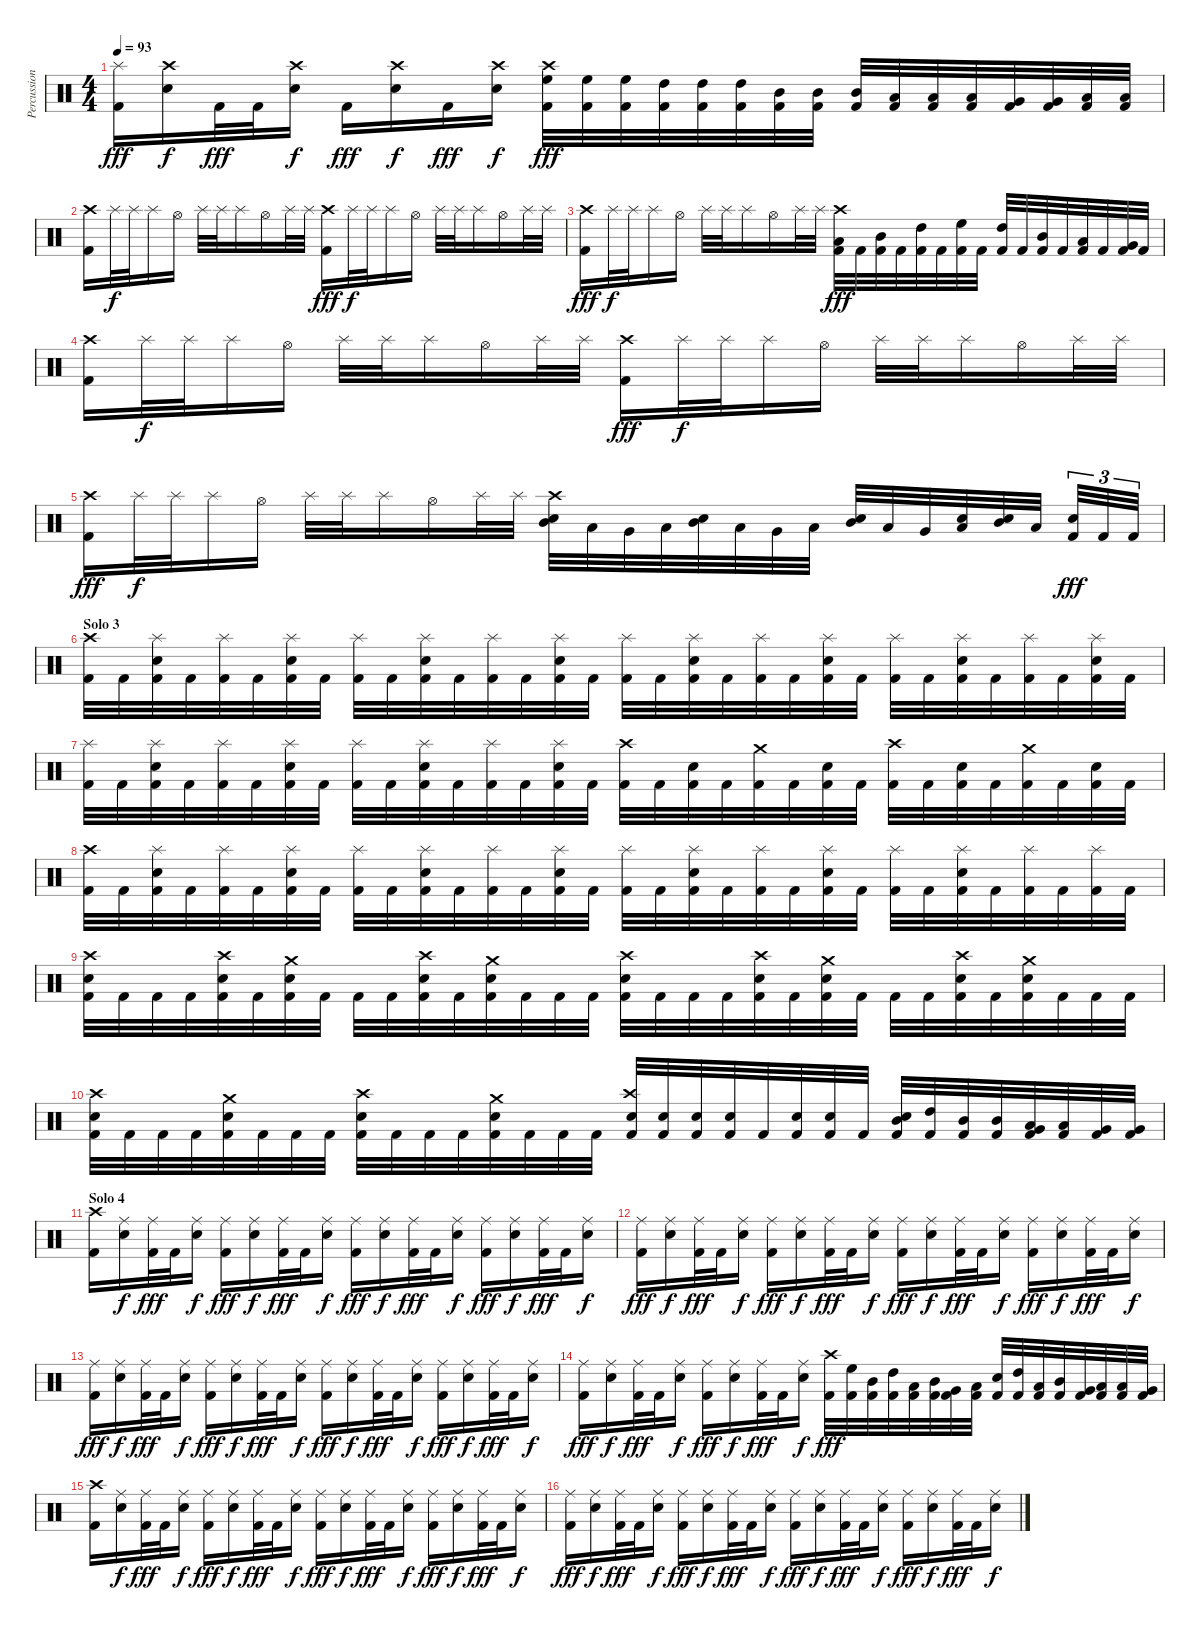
\track ("Percussion" "Percussion") {instrument percussion}
\staff {score}
\articulation defaults
\ts (4 4)
\tempo 93
\clef neutral
\ks c
("Splash (hit)" "Kick (hit) 2").16{dy fff} ("Crash high (hit)" "Snare (hit) 2").16{dy f} "Kick (hit) 2".32{dy fff} "Kick (hit) 2".32 ("Crash high (hit)" "Snare (hit) 2").16{dy f} "Kick (hit) 2".16{dy fff} ("Crash high (hit)" "Snare (hit) 2").16{dy f} "Kick (hit) 2".16{dy fff} ("Crash high (hit)" "Snare (hit) 2").16{dy f} ("Crash high (hit)" "High Floor Tom (hit)" "Kick (hit) 2").32{dy fff} ("High Floor Tom (hit)" "Kick (hit) 2").32 ("High Floor Tom (hit)" "Kick (hit) 2").32 ("High Tom (hit)" "Kick (hit) 2").32 ("High Tom (hit)" "Kick (hit) 2").32 ("High Tom (hit)" "Kick (hit) 2").32 ("Mid Tom (hit)" "Kick (hit) 2").32 ("Mid Tom (hit)" "Kick (hit) 2").32 ("Mid Tom (hit)" "Kick (hit) 2").32 ("Low Tom (hit)" "Kick (hit) 2").32 ("Low Tom (hit)" "Kick (hit) 2").32 ("Low Tom (hit)" "Kick (hit) 2").32 ("Very Low Tom (hit)" "Kick (hit) 2").32 ("Very Low Tom (hit)" "Kick (hit) 2").32 ("Low Floor Tom (hit)" "Kick (hit) 2").32 ("Low Floor Tom (hit)" "Kick (hit) 2").32 |
\section ("" "")
("Crash high (hit)" "Kick (hit) 2").16 "Splash (hit)".32{dy f} "Splash (hit)".32 "Splash (hit)".16 "Hi-Hat (open)".16 "Splash (hit)".32 "Splash (hit)".32 "Splash (hit)".16 "Hi-Hat (open)".16 "Splash (hit)".32 "Splash (hit)".32 ("Crash high (hit)" "Kick (hit) 2").16{dy fff} "Splash (hit)".32{dy f} "Splash (hit)".32 "Splash (hit)".16 "Hi-Hat (open)".16 "Splash (hit)".32 "Splash (hit)".32 "Splash (hit)".16 "Hi-Hat (open)".16 "Splash (hit)".32 "Splash (hit)".32 |
("Crash high (hit)" "Kick (hit) 2").16{dy fff} "Splash (hit)".32{dy f} "Splash (hit)".32 "Splash (hit)".16 "Hi-Hat (open)".16 "Splash (hit)".32 "Splash (hit)".32 "Splash (hit)".16 "Hi-Hat (open)".16 "Splash (hit)".32 "Splash (hit)".32 ("Crash high (hit)" "Low Tom (hit)" "Kick (hit) 2").32{dy fff} "Kick (hit) 2".32 ("Mid Tom (hit)" "Kick (hit) 2").32 "Kick (hit) 2".32 ("High Tom (hit)" "Kick (hit) 2").32 "Kick (hit) 2".32 ("High Floor Tom (hit)" "Kick (hit) 2").32 "Kick (hit) 2".32 ("High Tom (hit)" "Kick (hit) 2").32 "Kick (hit) 2".32 ("Mid Tom (hit)" "Kick (hit) 2").32 "Kick (hit) 2".32 ("Low Tom (hit)" "Kick (hit) 2").32 "Kick (hit) 2".32 ("Very Low Tom (hit)" "Kick (hit) 2").32 "Kick (hit) 2".32 |
("Crash high (hit)" "Kick (hit) 2").16 "Splash (hit)".32{dy f} "Splash (hit)".32 "Splash (hit)".16 "Hi-Hat (open)".16 "Splash (hit)".32 "Splash (hit)".32 "Splash (hit)".16 "Hi-Hat (open)".16 "Splash (hit)".32 "Splash (hit)".32 ("Crash high (hit)" "Kick (hit) 2").16{dy fff} "Splash (hit)".32{dy f} "Splash (hit)".32 "Splash (hit)".16 "Hi-Hat (open)".16 "Splash (hit)".32 "Splash (hit)".32 "Splash (hit)".16 "Hi-Hat (open)".16 "Splash (hit)".32 "Splash (hit)".32 |
("Crash high (hit)" "Kick (hit) 2").16{dy fff} "Splash (hit)".32{dy f} "Splash (hit)".32 "Splash (hit)".16 "Hi-Hat (open)".16 "Splash (hit)".32 "Splash (hit)".32 "Splash (hit)".16 "Hi-Hat (open)".16 "Splash (hit)".32 "Splash (hit)".32 ("Crash high (hit)" "Snare (hit) 2" "Mid Tom (hit)").32 "Low Tom (hit)".32 "Very Low Tom (hit)".32 "Low Tom (hit)".32 ("Snare (hit) 2" "Mid Tom (hit)").32 "Low Tom (hit)".32 "Very Low Tom (hit)".32 "Low Tom (hit)".32 ("Snare (hit) 2" "Mid Tom (hit)").32 "Low Tom (hit)".32 "Very Low Tom (hit)".32 ("Snare (hit) 2" "Low Tom (hit)").32 ("Snare (hit) 2" "Mid Tom (hit)").32 "Low Tom (hit)".32 ("Snare (hit) 2" "Kick (hit) 2").32{tu (3 2) dy fff} "Kick (hit) 2".32{tu (3 2)} "Kick (hit) 2".32{tu (3 2)} |
\section ("" "Solo 3")
("Crash high (hit)" "Kick (hit) 2").32 "Kick (hit) 2".32 ("Splash (hit)" "Snare (hit) 2" "Kick (hit) 2").32 "Kick (hit) 2".32 ("Splash (hit)" "Kick (hit) 2").32 "Kick (hit) 2".32 ("Splash (hit)" "Snare (hit) 2" "Kick (hit) 2").32 "Kick (hit) 2".32 ("Splash (hit)" "Kick (hit) 2").32 "Kick (hit) 2".32 ("Splash (hit)" "Snare (hit) 2" "Kick (hit) 2").32 "Kick (hit) 2".32 ("Splash (hit)" "Kick (hit) 2").32 "Kick (hit) 2".32 ("Splash (hit)" "Snare (hit) 2" "Kick (hit) 2").32 "Kick (hit) 2".32 ("Splash (hit)" "Kick (hit) 2").32 "Kick (hit) 2".32 ("Splash (hit)" "Snare (hit) 2" "Kick (hit) 2").32 "Kick (hit) 2".32 ("Splash (hit)" "Kick (hit) 2").32 "Kick (hit) 2".32 ("Splash (hit)" "Snare (hit) 2" "Kick (hit) 2").32 "Kick (hit) 2".32 ("Splash (hit)" "Kick (hit) 2").32 "Kick (hit) 2".32 ("Splash (hit)" "Snare (hit) 2" "Kick (hit) 2").32 "Kick (hit) 2".32 ("Splash (hit)" "Kick (hit) 2").32 "Kick (hit) 2".32 ("Splash (hit)" "Snare (hit) 2" "Kick (hit) 2").32 "Kick (hit) 2".32 |
("Splash (hit)" "Kick (hit) 2").32 "Kick (hit) 2".32 ("Splash (hit)" "Snare (hit) 2" "Kick (hit) 2").32 "Kick (hit) 2".32 ("Splash (hit)" "Kick (hit) 2").32 "Kick (hit) 2".32 ("Splash (hit)" "Snare (hit) 2" "Kick (hit) 2").32 "Kick (hit) 2".32 ("Splash (hit)" "Kick (hit) 2").32 "Kick (hit) 2".32 ("Splash (hit)" "Snare (hit) 2" "Kick (hit) 2").32 "Kick (hit) 2".32 ("Splash (hit)" "Kick (hit) 2").32 "Kick (hit) 2".32 ("Splash (hit)" "Snare (hit) 2" "Kick (hit) 2").32 "Kick (hit) 2".32 ("Crash high (hit)" "Kick (hit) 2").32 "Kick (hit) 2".32 ("Snare (hit) 2" "Kick (hit) 2").32 "Kick (hit) 2".32 ("Crash medium (hit)" "Kick (hit) 2").32 "Kick (hit) 2".32 ("Snare (hit) 2" "Kick (hit) 2").32 "Kick (hit) 2".32 ("Crash high (hit)" "Kick (hit) 2").32 "Kick (hit) 2".32 ("Snare (hit) 2" "Kick (hit) 2").32 "Kick (hit) 2".32 ("Crash medium (hit)" "Kick (hit) 2").32 "Kick (hit) 2".32 ("Snare (hit) 2" "Kick (hit) 2").32 "Kick (hit) 2".32 |
("Crash high (hit)" "Kick (hit) 2").32 "Kick (hit) 2".32 ("Splash (hit)" "Snare (hit) 2" "Kick (hit) 2").32 "Kick (hit) 2".32 ("Splash (hit)" "Kick (hit) 2").32 "Kick (hit) 2".32 ("Splash (hit)" "Snare (hit) 2" "Kick (hit) 2").32 "Kick (hit) 2".32 ("Splash (hit)" "Kick (hit) 2").32 "Kick (hit) 2".32 ("Splash (hit)" "Snare (hit) 2" "Kick (hit) 2").32 "Kick (hit) 2".32 ("Splash (hit)" "Kick (hit) 2").32 "Kick (hit) 2".32 ("Splash (hit)" "Snare (hit) 2" "Kick (hit) 2").32 "Kick (hit) 2".32 ("Splash (hit)" "Kick (hit) 2").32 "Kick (hit) 2".32 ("Splash (hit)" "Snare (hit) 2" "Kick (hit) 2").32 "Kick (hit) 2".32 ("Splash (hit)" "Kick (hit) 2").32 "Kick (hit) 2".32 ("Splash (hit)" "Snare (hit) 2" "Kick (hit) 2").32 "Kick (hit) 2".32 ("Splash (hit)" "Kick (hit) 2").32 "Kick (hit) 2".32 ("Splash (hit)" "Snare (hit) 2" "Kick (hit) 2").32 "Kick (hit) 2".32 ("Splash (hit)" "Kick (hit) 2").32 "Kick (hit) 2".32 ("Splash (hit)" "Kick (hit) 2").32 "Kick (hit) 2".32 |
("Crash high (hit)" "Snare (hit) 2" "Kick (hit) 2").32 "Kick (hit) 2".32 "Kick (hit) 2".32 "Kick (hit) 2".32 ("Crash high (hit)" "Snare (hit) 2" "Kick (hit) 2").32 "Kick (hit) 2".32 ("Crash medium (hit)" "Snare (hit) 2" "Kick (hit) 2").32 "Kick (hit) 2".32 "Kick (hit) 2".32 "Kick (hit) 2".32 ("Crash high (hit)" "Snare (hit) 2" "Kick (hit) 2").32 "Kick (hit) 2".32 ("Crash medium (hit)" "Snare (hit) 2" "Kick (hit) 2").32 "Kick (hit) 2".32 "Kick (hit) 2".32 "Kick (hit) 2".32 ("Crash high (hit)" "Snare (hit) 2" "Kick (hit) 2").32 "Kick (hit) 2".32 "Kick (hit) 2".32 "Kick (hit) 2".32 ("Crash high (hit)" "Snare (hit) 2" "Kick (hit) 2").32 "Kick (hit) 2".32 ("Crash medium (hit)" "Snare (hit) 2" "Kick (hit) 2").32 "Kick (hit) 2".32 "Kick (hit) 2".32 "Kick (hit) 2".32 ("Crash high (hit)" "Snare (hit) 2" "Kick (hit) 2").32 "Kick (hit) 2".32 ("Crash medium (hit)" "Snare (hit) 2" "Kick (hit) 2").32 "Kick (hit) 2".32 "Kick (hit) 2".32 "Kick (hit) 2".32 |
("Crash high (hit)" "Snare (hit) 2" "Kick (hit) 2").32 "Kick (hit) 2".32 "Kick (hit) 2".32 "Kick (hit) 2".32 ("Crash medium (hit)" "Snare (hit) 2" "Kick (hit) 2").32 "Kick (hit) 2".32 "Kick (hit) 2".32 "Kick (hit) 2".32 ("Crash high (hit)" "Snare (hit) 2" "Kick (hit) 2").32 "Kick (hit) 2".32 "Kick (hit) 2".32 "Kick (hit) 2".32 ("Crash medium (hit)" "Snare (hit) 2" "Kick (hit) 2").32 "Kick (hit) 2".32 "Kick (hit) 2".32 "Kick (hit) 2".32 ("Crash high (hit)" "Snare (hit) 2" "Kick (hit) 2").32 ("Snare (hit) 2" "Kick (hit) 2").32 ("Snare (hit) 2" "Kick (hit) 2").32 ("Snare (hit) 2" "Kick (hit) 2").32 "Kick (hit) 2".32 ("Snare (hit) 2" "Kick (hit) 2").32 ("Snare (hit) 2" "Kick (hit) 2").32 "Kick (hit) 2".32 ("Mid Tom (hit)" "Snare (hit) 2" "Kick (hit) 2").32 ("High Tom (hit)" "Kick (hit) 2").32 ("Mid Tom (hit)" "Kick (hit) 2").32 ("Mid Tom (hit)" "Kick (hit) 2").32 ("Very Low Tom (hit)" "Low Tom (hit)" "Kick (hit) 2").32 ("Low Tom (hit)" "Kick (hit) 2").32 ("Very Low Tom (hit)" "Kick (hit) 2").32 ("Very Low Tom (hit)" "Kick (hit) 2").32 |
\section ("" "Solo 4")
("Crash high (hit)" "Kick (hit) 2").16 ("Ride (middle)" "Snare (hit) 2").16{dy f} ("Ride (middle)" "Kick (hit) 2").32{dy fff} "Kick (hit) 2".32 ("Ride (middle)" "Snare (hit) 2").16{dy f} ("Ride (middle)" "Kick (hit) 2").16{dy fff} ("Ride (middle)" "Snare (hit) 2").16{dy f} ("Ride (middle)" "Kick (hit) 2").32{dy fff} "Kick (hit) 2".32 ("Ride (middle)" "Snare (hit) 2").16{dy f} ("Ride (middle)" "Kick (hit) 2").16{dy fff} ("Ride (middle)" "Snare (hit) 2").16{dy f} ("Ride (middle)" "Kick (hit) 2").32{dy fff} "Kick (hit) 2".32 ("Ride (middle)" "Snare (hit) 2").16{dy f} ("Ride (middle)" "Kick (hit) 2").16{dy fff} ("Ride (middle)" "Snare (hit) 2").16{dy f} ("Ride (middle)" "Kick (hit) 2").32{dy fff} "Kick (hit) 2".32 ("Ride (middle)" "Snare (hit) 2").16{dy f} |
("Ride (middle)" "Kick (hit) 2").16{dy fff} ("Ride (middle)" "Snare (hit) 2").16{dy f} ("Ride (middle)" "Kick (hit) 2").32{dy fff} "Kick (hit) 2".32 ("Ride (middle)" "Snare (hit) 2").16{dy f} ("Ride (middle)" "Kick (hit) 2").16{dy fff} ("Ride (middle)" "Snare (hit) 2").16{dy f} ("Ride (middle)" "Kick (hit) 2").32{dy fff} "Kick (hit) 2".32 ("Ride (middle)" "Snare (hit) 2").16{dy f} ("Ride (middle)" "Kick (hit) 2").16{dy fff} ("Ride (middle)" "Snare (hit) 2").16{dy f} ("Ride (middle)" "Kick (hit) 2").32{dy fff} "Kick (hit) 2".32 ("Ride (middle)" "Snare (hit) 2").16{dy f} ("Ride (middle)" "Kick (hit) 2").16{dy fff} ("Ride (middle)" "Snare (hit) 2").16{dy f} ("Ride (middle)" "Kick (hit) 2").32{dy fff} "Kick (hit) 2".32 ("Ride (middle)" "Snare (hit) 2").16{dy f} |
("Ride (middle)" "Kick (hit) 2").16{dy fff} ("Ride (middle)" "Snare (hit) 2").16{dy f} ("Ride (middle)" "Kick (hit) 2").32{dy fff} "Kick (hit) 2".32 ("Ride (middle)" "Snare (hit) 2").16{dy f} ("Ride (middle)" "Kick (hit) 2").16{dy fff} ("Ride (middle)" "Snare (hit) 2").16{dy f} ("Ride (middle)" "Kick (hit) 2").32{dy fff} "Kick (hit) 2".32 ("Ride (middle)" "Snare (hit) 2").16{dy f} ("Ride (middle)" "Kick (hit) 2").16{dy fff} ("Ride (middle)" "Snare (hit) 2").16{dy f} ("Ride (middle)" "Kick (hit) 2").32{dy fff} "Kick (hit) 2".32 ("Ride (middle)" "Snare (hit) 2").16{dy f} ("Ride (middle)" "Kick (hit) 2").16{dy fff} ("Ride (middle)" "Snare (hit) 2").16{dy f} ("Ride (middle)" "Kick (hit) 2").32{dy fff} "Kick (hit) 2".32 ("Ride (middle)" "Snare (hit) 2").16{dy f} |
("Ride (middle)" "Kick (hit) 2").16{dy fff} ("Ride (middle)" "Snare (hit) 2").16{dy f} ("Ride (middle)" "Kick (hit) 2").32{dy fff} "Kick (hit) 2".32 ("Ride (middle)" "Snare (hit) 2").16{dy f} ("Ride (middle)" "Kick (hit) 2").16{dy fff} ("Ride (middle)" "Snare (hit) 2").16{dy f} ("Ride (middle)" "Kick (hit) 2").32{dy fff} "Kick (hit) 2".32 ("Ride (middle)" "Snare (hit) 2").16{dy f} ("Crash high (hit)" "Kick (hit) 2").32{dy fff} ("High Floor Tom (hit)" "Kick (hit) 2").32 ("Mid Tom (hit)" "Kick (hit) 2").32 ("High Tom (hit)" "Kick (hit) 2").32 ("Low Tom (hit)" "Kick (hit) 2").32 ("Mid Tom (hit)" "Kick (hit) 2").32 ("Very Low Tom (hit)" "Kick (hit) 2").32 ("Low Floor Tom (hit)" "Kick (hit) 2").32 ("Snare (hit) 2" "Kick (hit) 2").32 ("High Tom (hit)" "Kick (hit) 2").32 ("Low Tom (hit)" "Kick (hit) 2").32 ("Mid Tom (hit)" "Kick (hit) 2").32 ("Very Low Tom (hit)" "Kick (hit) 2").32 ("Low Tom (hit)" "Kick (hit) 2").32 ("Low Floor Tom (hit)" "Kick (hit) 2").32 ("Very Low Tom (hit)" "Kick (hit) 2").32 |
("Crash high (hit)" "Kick (hit) 2").16 ("Ride (middle)" "Snare (hit) 2").16{dy f} ("Ride (middle)" "Kick (hit) 2").32{dy fff} "Kick (hit) 2".32 ("Ride (middle)" "Snare (hit) 2").16{dy f} ("Ride (middle)" "Kick (hit) 2").16{dy fff} ("Ride (middle)" "Snare (hit) 2").16{dy f} ("Ride (middle)" "Kick (hit) 2").32{dy fff} "Kick (hit) 2".32 ("Ride (middle)" "Snare (hit) 2").16{dy f} ("Ride (middle)" "Kick (hit) 2").16{dy fff} ("Ride (middle)" "Snare (hit) 2").16{dy f} ("Ride (middle)" "Kick (hit) 2").32{dy fff} "Kick (hit) 2".32 ("Ride (middle)" "Snare (hit) 2").16{dy f} ("Ride (middle)" "Kick (hit) 2").16{dy fff} ("Ride (middle)" "Snare (hit) 2").16{dy f} ("Ride (middle)" "Kick (hit) 2").32{dy fff} "Kick (hit) 2".32 ("Ride (middle)" "Snare (hit) 2").16{dy f} |
("Ride (middle)" "Kick (hit) 2").16{dy fff} ("Ride (middle)" "Snare (hit) 2").16{dy f} ("Ride (middle)" "Kick (hit) 2").32{dy fff} "Kick (hit) 2".32 ("Ride (middle)" "Snare (hit) 2").16{dy f} ("Ride (middle)" "Kick (hit) 2").16{dy fff} ("Ride (middle)" "Snare (hit) 2").16{dy f} ("Ride (middle)" "Kick (hit) 2").32{dy fff} "Kick (hit) 2".32 ("Ride (middle)" "Snare (hit) 2").16{dy f} ("Ride (middle)" "Kick (hit) 2").16{dy fff} ("Ride (middle)" "Snare (hit) 2").16{dy f} ("Ride (middle)" "Kick (hit) 2").32{dy fff} "Kick (hit) 2".32 ("Ride (middle)" "Snare (hit) 2").16{dy f} ("Ride (middle)" "Kick (hit) 2").16{dy fff} ("Ride (middle)" "Snare (hit) 2").16{dy f} ("Ride (middle)" "Kick (hit) 2").32{dy fff} "Kick (hit) 2".32 ("Ride (middle)" "Snare (hit) 2").16{dy f}
